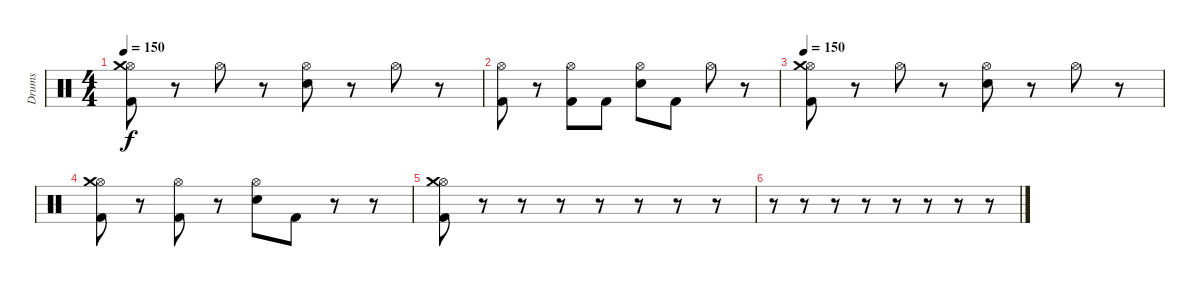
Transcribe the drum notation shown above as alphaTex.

\track ("Drums" "Drums") {instrument percussion}
\staff {score}
\articulation defaults
\ts (4 4)
\tempo 150
\clef neutral
\ks c
("Kick (hit) 2" "Hi-Hat (open)" "Crash medium (hit)").8{dy f} r.8 "Hi-Hat (open)".8 r.8 ("Electric Snare (hit)" "Hi-Hat (open)").8 r.8 "Hi-Hat (open)".8 r.8 |
("Kick (hit) 2" "Hi-Hat (open)").8 r.8 ("Kick (hit) 2" "Hi-Hat (open)").8 "Kick (hit) 2".8 ("Electric Snare (hit)" "Hi-Hat (open)").8 "Kick (hit) 2".8 "Hi-Hat (open)".8 r.8 |
\tempo 150
("Kick (hit) 2" "Hi-Hat (open)" "Crash medium (hit)").8 r.8 "Hi-Hat (open)".8 r.8 ("Electric Snare (hit)" "Hi-Hat (open)").8 r.8 "Hi-Hat (open)".8 r.8 |
("Kick (hit) 2" "Hi-Hat (open)" "Crash medium (hit)").8 r.8 ("Kick (hit) 2" "Hi-Hat (open)").8 r.8 ("Electric Snare (hit)" "Hi-Hat (open)").8 "Kick (hit) 2".8 r.8 r.8 |
("Kick (hit) 2" "Hi-Hat (open)" "Crash medium (hit)").8 r.8 r.8 r.8 r.8 r.8 r.8 r.8 |
r.8 r.8 r.8 r.8 r.8 r.8 r.8 r.8
